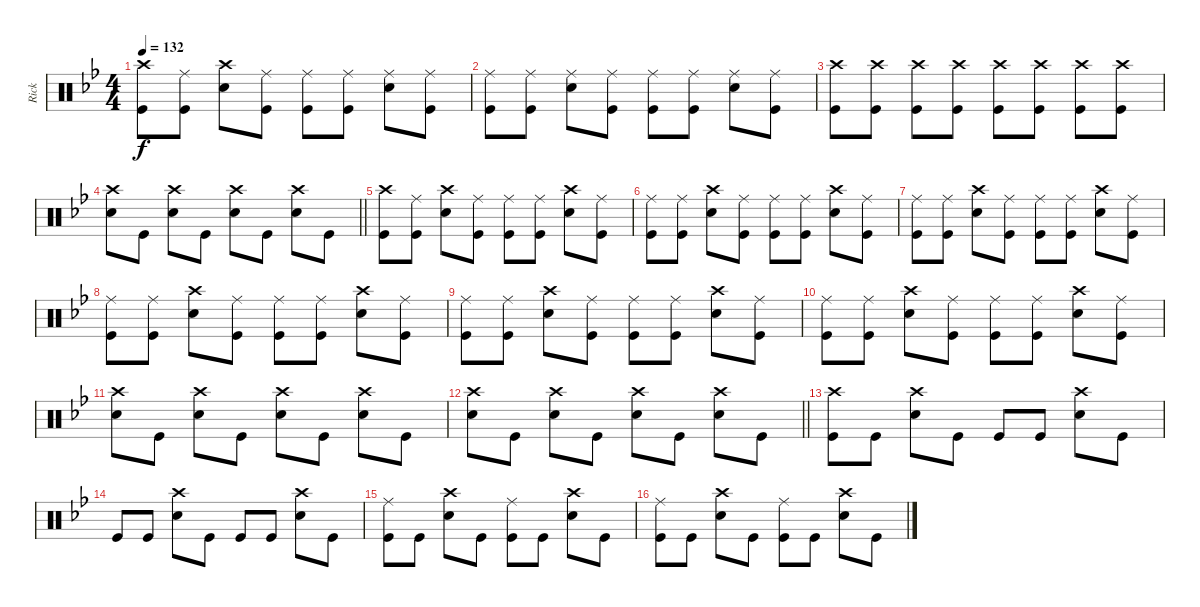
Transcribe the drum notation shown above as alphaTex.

\track ("Rick" "Rick") {instrument percussion}
\staff {score}
\articulation defaults
\ts (4 4)
\tempo 132
\clef neutral
\ks gminor
("Crash high (hit)" "Kick (hit)").8{dy f} ("Ride (middle)" "Kick (hit)").8 ("Crash high (hit)" "Snare (hit) 2").8 ("Ride (middle)" "Kick (hit)").8 ("Ride (middle)" "Kick (hit)").8 ("Ride (middle)" "Kick (hit)").8 ("Ride (middle)" "Snare (hit) 2").8 ("Ride (middle)" "Kick (hit)").8 |
("Ride (middle)" "Kick (hit)").8 ("Ride (middle)" "Kick (hit)").8 ("Ride (middle)" "Snare (hit) 2").8 ("Ride (middle)" "Kick (hit)").8 ("Ride (middle)" "Kick (hit)").8 ("Ride (middle)" "Kick (hit)").8 ("Ride (middle)" "Snare (hit) 2").8 ("Ride (middle)" "Kick (hit)").8 |
("Crash high (hit)" "Kick (hit)").8 ("Crash high (hit)" "Kick (hit)").8 ("Crash high (hit)" "Kick (hit)").8 ("Crash high (hit)" "Kick (hit)").8 ("Crash high (hit)" "Kick (hit)").8 ("Crash high (hit)" "Kick (hit)").8 ("Crash high (hit)" "Kick (hit)").8 ("Crash high (hit)" "Kick (hit)").8 |
\barLineRight lightlight
("Crash high (hit)" "Snare (hit) 2").8 "Kick (hit)".8 ("Crash high (hit)" "Snare (hit) 2").8 "Kick (hit)".8 ("Crash high (hit)" "Snare (hit) 2").8 "Kick (hit)".8 ("Crash high (hit)" "Snare (hit) 2").8 "Kick (hit)".8 |
("Crash high (hit)" "Kick (hit)").8 ("Ride (middle)" "Kick (hit)").8 ("Crash high (hit)" "Snare (hit) 2").8 ("Ride (middle)" "Kick (hit)").8 ("Ride (middle)" "Kick (hit)").8 ("Ride (middle)" "Kick (hit)").8 ("Crash high (hit)" "Snare (hit) 2").8 ("Ride (middle)" "Kick (hit)").8 |
("Ride (middle)" "Kick (hit)").8 ("Ride (middle)" "Kick (hit)").8 ("Crash high (hit)" "Snare (hit) 2").8 ("Ride (middle)" "Kick (hit)").8 ("Ride (middle)" "Kick (hit)").8 ("Ride (middle)" "Kick (hit)").8 ("Crash high (hit)" "Snare (hit) 2").8 ("Ride (middle)" "Kick (hit)").8 |
("Ride (middle)" "Kick (hit)").8 ("Ride (middle)" "Kick (hit)").8 ("Crash high (hit)" "Snare (hit) 2").8 ("Ride (middle)" "Kick (hit)").8 ("Ride (middle)" "Kick (hit)").8 ("Ride (middle)" "Kick (hit)").8 ("Crash high (hit)" "Snare (hit) 2").8 ("Ride (middle)" "Kick (hit)").8 |
("Ride (middle)" "Kick (hit)").8 ("Ride (middle)" "Kick (hit)").8 ("Crash high (hit)" "Snare (hit) 2").8 ("Ride (middle)" "Kick (hit)").8 ("Ride (middle)" "Kick (hit)").8 ("Ride (middle)" "Kick (hit)").8 ("Crash high (hit)" "Snare (hit) 2").8 ("Ride (middle)" "Kick (hit)").8 |
("Ride (middle)" "Kick (hit)").8 ("Ride (middle)" "Kick (hit)").8 ("Crash high (hit)" "Snare (hit) 2").8 ("Ride (middle)" "Kick (hit)").8 ("Ride (middle)" "Kick (hit)").8 ("Ride (middle)" "Kick (hit)").8 ("Crash high (hit)" "Snare (hit) 2").8 ("Ride (middle)" "Kick (hit)").8 |
("Ride (middle)" "Kick (hit)").8 ("Ride (middle)" "Kick (hit)").8 ("Crash high (hit)" "Snare (hit) 2").8 ("Ride (middle)" "Kick (hit)").8 ("Ride (middle)" "Kick (hit)").8 ("Ride (middle)" "Kick (hit)").8 ("Crash high (hit)" "Snare (hit) 2").8 ("Ride (middle)" "Kick (hit)").8 |
("Crash high (hit)" "Snare (hit) 2").8 "Kick (hit)".8 ("Crash high (hit)" "Snare (hit) 2").8 "Kick (hit)".8 ("Crash high (hit)" "Snare (hit) 2").8 "Kick (hit)".8 ("Crash high (hit)" "Snare (hit) 2").8 "Kick (hit)".8 |
\barLineRight lightlight
("Crash high (hit)" "Snare (hit) 2").8 "Kick (hit)".8 ("Crash high (hit)" "Snare (hit) 2").8 "Kick (hit)".8 ("Crash high (hit)" "Snare (hit) 2").8 "Kick (hit)".8 ("Crash high (hit)" "Snare (hit) 2").8 "Kick (hit)".8 |
("Crash high (hit)" "Kick (hit)").8 "Kick (hit)".8 ("Crash high (hit)" "Snare (hit) 2").8 "Kick (hit)".8 "Kick (hit)".8 "Kick (hit)".8 ("Crash high (hit)" "Snare (hit) 2").8 "Kick (hit)".8 |
"Kick (hit)".8 "Kick (hit)".8 ("Crash high (hit)" "Snare (hit) 2").8 "Kick (hit)".8 "Kick (hit)".8 "Kick (hit)".8 ("Crash high (hit)" "Snare (hit) 2").8 "Kick (hit)".8 |
("Ride (middle)" "Kick (hit)").8 "Kick (hit)".8 ("Crash high (hit)" "Snare (hit) 2").8 "Kick (hit)".8 ("Ride (middle)" "Kick (hit)").8 "Kick (hit)".8 ("Crash high (hit)" "Snare (hit) 2").8 "Kick (hit)".8 |
("Ride (middle)" "Kick (hit)").8 "Kick (hit)".8 ("Crash high (hit)" "Snare (hit) 2").8 "Kick (hit)".8 ("Ride (middle)" "Kick (hit)").8 "Kick (hit)".8 ("Crash high (hit)" "Snare (hit) 2").8 "Kick (hit)".8
